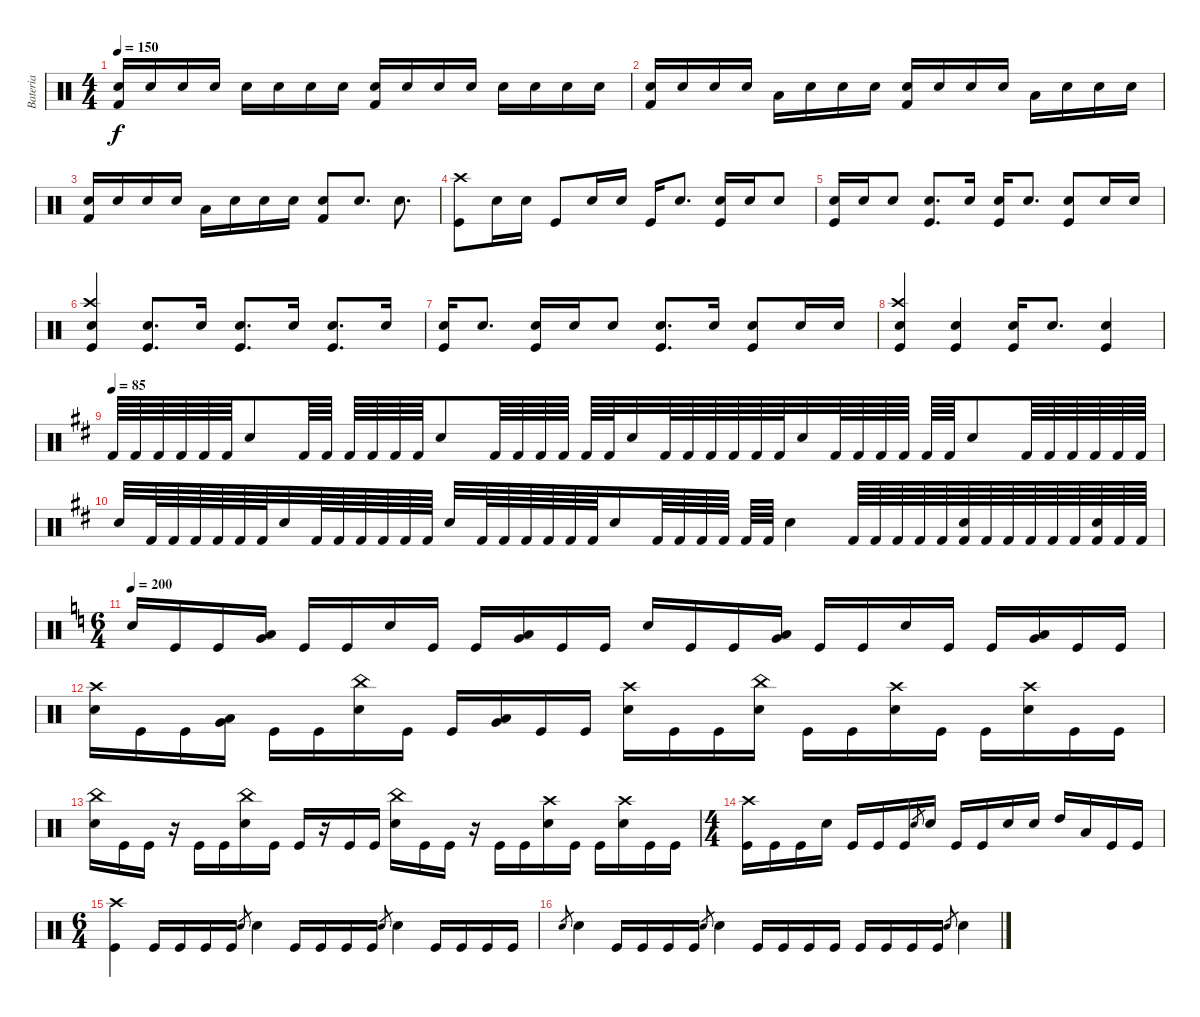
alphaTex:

\track ("Bateria" "Bateria") {instrument percussion}
\staff {score}
\articulation defaults
\ts (4 4)
\tempo 150
\clef neutral
\ks c
("Snare (hit) 2" "Kick (hit) 2").16{dy f} "Snare (hit) 2".16 "Snare (hit) 2".16 "Snare (hit) 2".16 "Snare (hit) 2".16 "Snare (hit) 2".16 "Snare (hit) 2".16 "Snare (hit) 2".16 ("Snare (hit) 2" "Kick (hit) 2").16 "Snare (hit) 2".16 "Snare (hit) 2".16 "Snare (hit) 2".16 "Snare (hit) 2".16 "Snare (hit) 2".16 "Snare (hit) 2".16 "Snare (hit) 2".16 |
("Snare (hit) 2" "Kick (hit) 2").16 "Snare (hit) 2".16 "Snare (hit) 2".16 "Snare (hit) 2".16 "Low Floor Tom (hit)".16 "Snare (hit) 2".16 "Snare (hit) 2".16 "Snare (hit) 2".16 ("Snare (hit) 2" "Kick (hit) 2").16 "Snare (hit) 2".16 "Snare (hit) 2".16 "Snare (hit) 2".16 "Low Floor Tom (hit)".16 "Snare (hit) 2".16 "Snare (hit) 2".16 "Snare (hit) 2".16 |
("Snare (hit) 2" "Kick (hit) 2").16 "Snare (hit) 2".16 "Snare (hit) 2".16 "Snare (hit) 2".16 "Low Floor Tom (hit)".16 "Snare (hit) 2".16 "Snare (hit) 2".16 "Snare (hit) 2".16 ("Snare (hit) 2" "Kick (hit) 2").8 "Snare (hit) 2".8{d} "Snare (hit) 2".8{d} |
("Crash high (hit)" "Kick (hit)").8 "Snare (hit) 2".16 "Snare (hit) 2".16 "Kick (hit)".8 "Snare (hit) 2".16 "Snare (hit) 2".16 "Kick (hit)".16 "Snare (hit) 2".8{d} ("Snare (hit) 2" "Kick (hit)").16 "Snare (hit) 2".16 "Snare (hit) 2".8 |
("Snare (hit) 2" "Kick (hit)").16 "Snare (hit) 2".16 "Snare (hit) 2".8 ("Snare (hit) 2" "Kick (hit)").8{d} "Snare (hit) 2".16 ("Snare (hit) 2" "Kick (hit)").16 "Snare (hit) 2".8{d} ("Snare (hit) 2" "Kick (hit)").8 "Snare (hit) 2".16 "Snare (hit) 2".16 |
("Crash high (hit)" "Snare (hit) 2" "Kick (hit)").4 ("Snare (hit) 2" "Kick (hit)").8{d} "Snare (hit) 2".16 ("Snare (hit) 2" "Kick (hit)").8{d} "Snare (hit) 2".16 ("Snare (hit) 2" "Kick (hit)").8{d} "Snare (hit) 2".16 |
("Snare (hit) 2" "Kick (hit)").16 "Snare (hit) 2".8{d} ("Snare (hit) 2" "Kick (hit)").16 "Snare (hit) 2".16 "Snare (hit) 2".8 ("Snare (hit) 2" "Kick (hit)").8{d} "Snare (hit) 2".16 ("Snare (hit) 2" "Kick (hit)").8 "Snare (hit) 2".16 "Snare (hit) 2".16 |
("Crash high (hit)" "Snare (hit) 2" "Kick (hit)").4 ("Snare (hit) 2" "Kick (hit)").4 ("Snare (hit) 2" "Kick (hit)").16 "Snare (hit) 2".8{d} ("Snare (hit) 2" "Kick (hit)").4 |
\tempo 85
\ks d "Kick (hit) 2".64 "Kick (hit) 2".64 "Kick (hit) 2".64 "Kick (hit) 2".64 "Kick (hit) 2".64 "Kick (hit) 2".64 "Snare (hit) 2".8 "Kick (hit) 2".64 "Kick (hit) 2".64 "Kick (hit) 2".64 "Kick (hit) 2".64 "Kick (hit) 2".64 "Kick (hit) 2".64 "Electric Snare (hit)".8 "Kick (hit) 2".64 "Kick (hit) 2".64 "Kick (hit) 2".64 "Kick (hit) 2".64 "Kick (hit) 2".64 "Kick (hit) 2".64 "Snare (hit) 2".32 "Kick (hit) 2".64 "Kick (hit) 2".64 "Kick (hit) 2".64 "Kick (hit) 2".64 "Kick (hit) 2".64 "Kick (hit) 2".64 "Electric Snare (hit)".32 "Kick (hit) 2".64 "Kick (hit) 2".64 "Kick (hit) 2".64 "Kick (hit) 2".64 "Kick (hit) 2".64 "Kick (hit) 2".64 "Snare (hit) 2".8 "Kick (hit) 2".64 "Kick (hit) 2".64 "Kick (hit) 2".64 "Kick (hit) 2".64 "Kick (hit) 2".64 "Kick (hit) 2".64
|
"Snare (hit) 2".32 "Kick (hit) 2".64 "Kick (hit) 2".64 "Kick (hit) 2".64 "Kick (hit) 2".64 "Kick (hit) 2".64 "Kick (hit) 2".64 "Electric Snare (hit)".32 "Kick (hit) 2".64 "Kick (hit) 2".64 "Kick (hit) 2".64 "Kick (hit) 2".64 "Kick (hit) 2".64 "Kick (hit) 2".64 "Snare (hit) 2".32 "Kick (hit) 2".64 "Kick (hit) 2".64 "Kick (hit) 2".64 "Kick (hit) 2".64 "Kick (hit) 2".64 "Kick (hit) 2".64 "Electric Snare (hit)".16 "Kick (hit) 2".64 "Kick (hit) 2".64 "Kick (hit) 2".64 "Kick (hit) 2".64 "Kick (hit) 2".64 "Kick (hit) 2".64 "Snare (hit) 2".4 "Kick (hit) 2".64 "Kick (hit) 2".64 "Kick (hit) 2".64 "Kick (hit) 2".64 "Kick (hit) 2".64 ("Electric Snare (hit)" "Kick (hit) 2").64 "Kick (hit) 2".64 "Kick (hit) 2".64 "Kick (hit) 2".64 "Kick (hit) 2".64 "Kick (hit) 2".64 ("Snare (hit) 2" "Kick (hit) 2").64 "Kick (hit) 2".64 "Kick (hit) 2".64 |
\ts (6 4)
\tempo 200
\ks c "Snare (hit) 2".16 "Kick (hit)".16 "Kick (hit)".16
("Low Floor Tom (hit)" "Very Low Tom (hit)").16 "Kick (hit)".16 "Kick (hit)".16 "Snare (hit) 2".16 "Kick (hit)".16 "Kick (hit)".16 ("Low Floor Tom (hit)" "Very Low Tom (hit)").16 "Kick (hit)".16 "Kick (hit)".16 "Snare (hit) 2".16 "Kick (hit)".16 "Kick (hit)".16 ("Low Floor Tom (hit)" "Very Low Tom (hit)").16 "Kick (hit)".16 "Kick (hit)".16 "Snare (hit) 2".16 "Kick (hit)".16 "Kick (hit)".16 ("Low Floor Tom (hit)" "Very Low Tom (hit)").16 "Kick (hit)".16 "Kick (hit)".16 |
("Snare (hit) 2" "Crash high (hit)").16 "Kick (hit)".16 "Kick (hit)".16 ("Low Floor Tom (hit)" "Very Low Tom (hit)").16 "Kick (hit)".16 "Kick (hit)".16 ("Snare (hit) 2" "China (hit)").16 "Kick (hit)".16 "Kick (hit)".16 ("Low Floor Tom (hit)" "Very Low Tom (hit)").16 "Kick (hit)".16 "Kick (hit)".16 ("Snare (hit) 2" "Crash high (hit)").16 "Kick (hit)".16 "Kick (hit)".16 ("China (hit)" "Snare (hit) 2").16 "Kick (hit)".16 "Kick (hit)".16 ("Snare (hit) 2" "Crash high (hit)").16 "Kick (hit)".16 "Kick (hit)".16 ("Snare (hit) 2" "Crash high (hit)").16 "Kick (hit)".16 "Kick (hit)".16 |
("Snare (hit) 2" "China (hit)").16 "Kick (hit)".16 "Kick (hit)".16 r.16 "Kick (hit)".16 "Kick (hit)".16 ("Snare (hit) 2" "China (hit)").16 "Kick (hit)".16 "Kick (hit)".16 r.16 "Kick (hit)".16 "Kick (hit)".16 ("Snare (hit) 2" "China (hit)").16 "Kick (hit)".16 "Kick (hit)".16 r.16 "Kick (hit)".16 "Kick (hit)".16 ("Snare (hit) 2" "Crash high (hit)").16 "Kick (hit)".16 "Kick (hit)".16 ("Crash high (hit)" "Snare (hit) 2").16 "Kick (hit)".16 "Kick (hit)".16 |
\ts (4 4)
("Kick (hit)" "Crash high (hit)").16 "Kick (hit)".16 "Kick (hit)".16 "Snare (hit) 2".16 "Kick (hit)".16 "Kick (hit)".16 "Kick (hit)".16 "Snare (hit) 2".8{gr} "Snare (hit) 2".16 "Kick (hit)".16 "Kick (hit)".16 "Snare (hit) 2".16 "Snare (hit) 2".16 "High Tom (hit)".16 "Low Tom (hit)".16 "Kick (hit)".16 "Kick (hit)".16 |
\ts (6 4)
("Kick (hit)" "Crash high (hit)").4 "Kick (hit)".16 "Kick (hit)".16 "Kick (hit)".16 "Kick (hit)".16 "Snare (hit) 2".8{gr} "Snare (hit) 2".4 "Kick (hit)".16 "Kick (hit)".16 "Kick (hit)".16 "Kick (hit)".16 "Snare (hit) 2".8{gr} "Snare (hit) 2".4 "Kick (hit)".16 "Kick (hit)".16 "Kick (hit)".16 "Kick (hit)".16 |
"Snare (hit) 2".8{gr} "Snare (hit) 2".4 "Kick (hit)".16 "Kick (hit)".16 "Kick (hit)".16 "Kick (hit)".16 "Snare (hit) 2".8{gr} "Snare (hit) 2".4 "Kick (hit)".16 "Kick (hit)".16 "Kick (hit)".16 "Kick (hit)".16 "Kick (hit)".16 "Kick (hit)".16 "Kick (hit)".16 "Kick (hit)".16 "Snare (hit) 2".8{gr} "Snare (hit) 2".4
